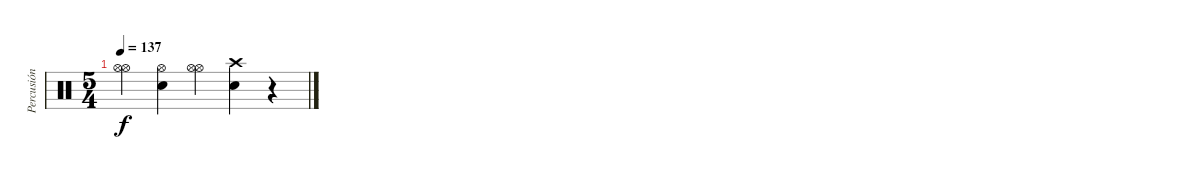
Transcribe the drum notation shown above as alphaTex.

\track ("Percusión" "Percusión") {instrument percussion}
\staff {score}
\articulation defaults
\ts (5 4)
\tempo 137
\clef neutral
\ks c
("Hi-Hat (open)" "Hi-Hat (open)").4{dy f} ("Hi-Hat (open)" "Electric Snare (hit)").4 ("Hi-Hat (open)" "Hi-Hat (open)").4 ("Crash high (hit)" "Electric Snare (hit)").4 r.4
